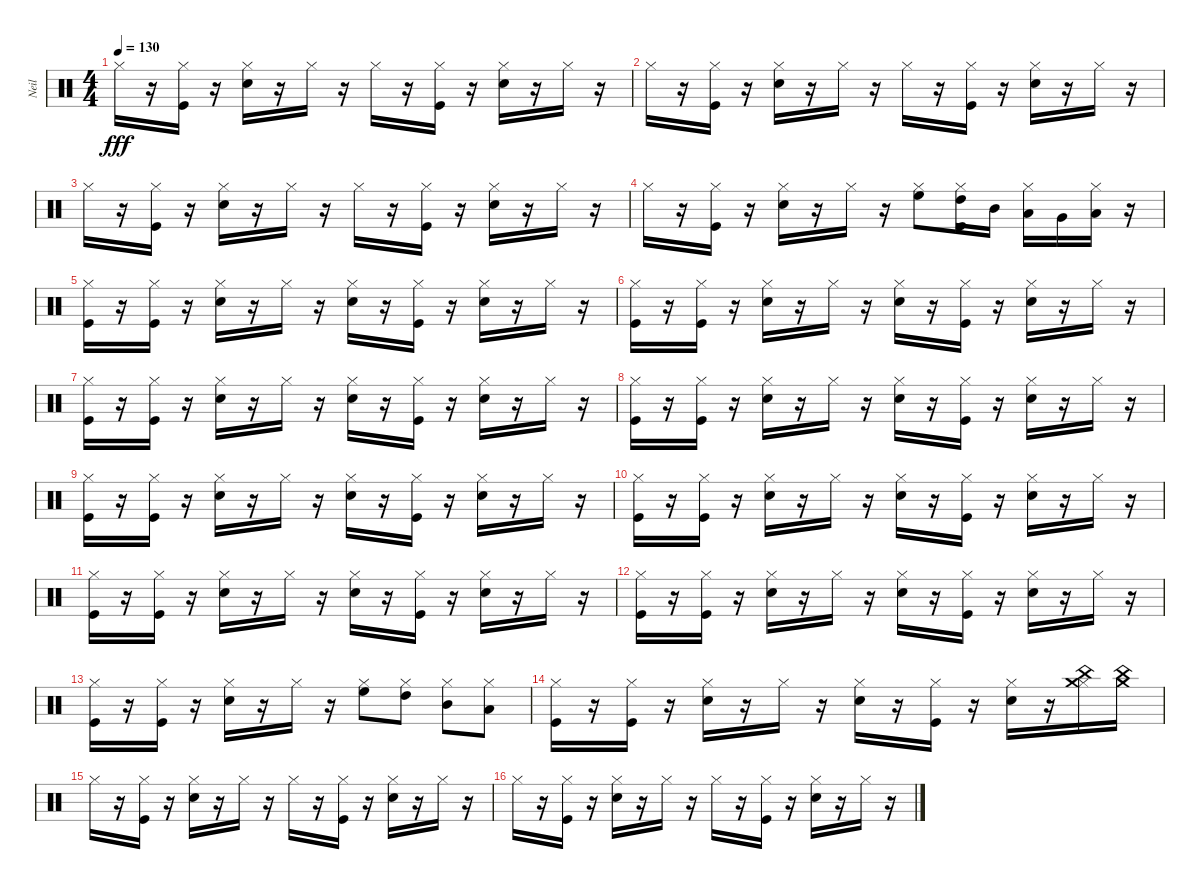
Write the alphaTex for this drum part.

\track ("Neil" "Neil") {instrument percussion}
\staff {score}
\articulation defaults
\ts (4 4)
\tempo 130
\clef neutral
\ks c "Hi-Hat (closed)".16{dy fff}
r.16 ("Kick (hit)" "Hi-Hat (closed)").16 r.16 ("Hi-Hat (closed)" "Electric Snare (hit)").16 r.16 "Hi-Hat (closed)".16 r.16 "Hi-Hat (closed)".16 r.16 ("Hi-Hat (closed)" "Kick (hit)").16 r.16 ("Hi-Hat (closed)" "Electric Snare (hit)").16 r.16 "Hi-Hat (closed)".16 r.16 |
"Hi-Hat (closed)".16 r.16 ("Kick (hit)" "Hi-Hat (closed)").16 r.16 ("Hi-Hat (closed)" "Electric Snare (hit)").16 r.16 "Hi-Hat (closed)".16 r.16 "Hi-Hat (closed)".16 r.16 ("Hi-Hat (closed)" "Kick (hit)").16 r.16 ("Hi-Hat (closed)" "Electric Snare (hit)").16 r.16 "Hi-Hat (closed)".16 r.16 |
"Hi-Hat (closed)".16 r.16 ("Kick (hit)" "Hi-Hat (closed)").16 r.16 ("Hi-Hat (closed)" "Electric Snare (hit)").16 r.16 "Hi-Hat (closed)".16 r.16 "Hi-Hat (closed)".16 r.16 ("Hi-Hat (closed)" "Kick (hit)").16 r.16 ("Hi-Hat (closed)" "Electric Snare (hit)").16 r.16 "Hi-Hat (closed)".16 r.16 |
"Hi-Hat (closed)".16 r.16 ("Kick (hit)" "Hi-Hat (closed)").16 r.16 ("Hi-Hat (closed)" "Electric Snare (hit)").16 r.16 "Hi-Hat (closed)".16 r.16 ("Hi-Hat (closed)" "High Floor Tom (hit)").8 ("Hi-Hat (closed)" "High Tom (hit)" "Kick (hit)").16 "Mid Tom (hit)".16 ("Hi-Hat (closed)" "Low Tom (hit)").16 "Very Low Tom (hit)".16 ("Hi-Hat (closed)" "Low Floor Tom (hit)").16 r.16 |
("Hi-Hat (closed)" "Kick (hit)").16 r.16 ("Kick (hit)" "Hi-Hat (closed)").16 r.16 ("Hi-Hat (closed)" "Electric Snare (hit)").16 r.16 "Hi-Hat (closed)".16 r.16 ("Hi-Hat (closed)" "Electric Snare (hit)").16 r.16 ("Hi-Hat (closed)" "Kick (hit)").16 r.16 ("Hi-Hat (closed)" "Electric Snare (hit)").16 r.16 "Hi-Hat (closed)".16 r.16 |
("Hi-Hat (closed)" "Kick (hit)").16 r.16 ("Kick (hit)" "Hi-Hat (closed)").16 r.16 ("Hi-Hat (closed)" "Electric Snare (hit)").16 r.16 "Hi-Hat (closed)".16 r.16 ("Hi-Hat (closed)" "Electric Snare (hit)").16 r.16 ("Hi-Hat (closed)" "Kick (hit)").16 r.16 ("Hi-Hat (closed)" "Electric Snare (hit)").16 r.16 "Hi-Hat (closed)".16 r.16 |
("Hi-Hat (closed)" "Kick (hit)").16 r.16 ("Kick (hit)" "Hi-Hat (closed)").16 r.16 ("Hi-Hat (closed)" "Electric Snare (hit)").16 r.16 "Hi-Hat (closed)".16 r.16 ("Hi-Hat (closed)" "Electric Snare (hit)").16 r.16 ("Hi-Hat (closed)" "Kick (hit)").16 r.16 ("Hi-Hat (closed)" "Electric Snare (hit)").16 r.16 "Hi-Hat (closed)".16 r.16 |
("Hi-Hat (closed)" "Kick (hit)").16 r.16 ("Kick (hit)" "Hi-Hat (closed)").16 r.16 ("Hi-Hat (closed)" "Electric Snare (hit)").16 r.16 "Hi-Hat (closed)".16 r.16 ("Hi-Hat (closed)" "Electric Snare (hit)").16 r.16 ("Hi-Hat (closed)" "Kick (hit)").16 r.16 ("Hi-Hat (closed)" "Electric Snare (hit)").16 r.16 "Hi-Hat (closed)".16 r.16 |
("Hi-Hat (closed)" "Kick (hit)").16 r.16 ("Kick (hit)" "Hi-Hat (closed)").16 r.16 ("Hi-Hat (closed)" "Electric Snare (hit)").16 r.16 "Hi-Hat (closed)".16 r.16 ("Hi-Hat (closed)" "Electric Snare (hit)").16 r.16 ("Hi-Hat (closed)" "Kick (hit)").16 r.16 ("Hi-Hat (closed)" "Electric Snare (hit)").16 r.16 "Hi-Hat (closed)".16 r.16 |
("Hi-Hat (closed)" "Kick (hit)").16 r.16 ("Kick (hit)" "Hi-Hat (closed)").16 r.16 ("Hi-Hat (closed)" "Electric Snare (hit)").16 r.16 "Hi-Hat (closed)".16 r.16 ("Hi-Hat (closed)" "Electric Snare (hit)").16 r.16 ("Hi-Hat (closed)" "Kick (hit)").16 r.16 ("Hi-Hat (closed)" "Electric Snare (hit)").16 r.16 "Hi-Hat (closed)".16 r.16 |
("Hi-Hat (closed)" "Kick (hit)").16 r.16 ("Kick (hit)" "Hi-Hat (closed)").16 r.16 ("Hi-Hat (closed)" "Electric Snare (hit)").16 r.16 "Hi-Hat (closed)".16 r.16 ("Hi-Hat (closed)" "Electric Snare (hit)").16 r.16 ("Hi-Hat (closed)" "Kick (hit)").16 r.16 ("Hi-Hat (closed)" "Electric Snare (hit)").16 r.16 "Hi-Hat (closed)".16 r.16 |
("Hi-Hat (closed)" "Kick (hit)").16 r.16 ("Kick (hit)" "Hi-Hat (closed)").16 r.16 ("Hi-Hat (closed)" "Electric Snare (hit)").16 r.16 "Hi-Hat (closed)".16 r.16 ("Hi-Hat (closed)" "Electric Snare (hit)").16 r.16 ("Hi-Hat (closed)" "Kick (hit)").16 r.16 ("Hi-Hat (closed)" "Electric Snare (hit)").16 r.16 "Hi-Hat (closed)".16 r.16 |
("Hi-Hat (closed)" "Kick (hit)").16 r.16 ("Kick (hit)" "Hi-Hat (closed)").16 r.16 ("Hi-Hat (closed)" "Electric Snare (hit)").16 r.16 "Hi-Hat (closed)".16 r.16 ("Hi-Hat (closed)" "High Floor Tom (hit)").8 ("Hi-Hat (closed)" "High Tom (hit)").8 ("Hi-Hat (closed)" "Mid Tom (hit)").8 ("Low Tom (hit)" "Hi-Hat (closed)").8 |
("Hi-Hat (closed)" "Kick (hit)").16 r.16 ("Kick (hit)" "Hi-Hat (closed)").16 r.16 ("Hi-Hat (closed)" "Electric Snare (hit)").16 r.16 "Hi-Hat (closed)".16 r.16 ("Hi-Hat (closed)" "Electric Snare (hit)").16 r.16 ("Hi-Hat (closed)" "Kick (hit)").16 r.16 ("Hi-Hat (closed)" "Electric Snare (hit)").16 r.16 ("Hi-Hat (closed)" "Crash medium (hit)" "China (hit)").16 ("China (hit)" "Crash medium (hit)").16 |
"Hi-Hat (closed)".16 r.16 ("Kick (hit)" "Hi-Hat (closed)").16 r.16 ("Hi-Hat (closed)" "Electric Snare (hit)").16 r.16 "Hi-Hat (closed)".16 r.16 "Hi-Hat (closed)".16 r.16 ("Hi-Hat (closed)" "Kick (hit)").16 r.16 ("Hi-Hat (closed)" "Electric Snare (hit)").16 r.16 "Hi-Hat (closed)".16 r.16 |
"Hi-Hat (closed)".16 r.16 ("Kick (hit)" "Hi-Hat (closed)").16 r.16 ("Hi-Hat (closed)" "Electric Snare (hit)").16 r.16 "Hi-Hat (closed)".16 r.16 "Hi-Hat (closed)".16 r.16 ("Hi-Hat (closed)" "Kick (hit)").16 r.16 ("Hi-Hat (closed)" "Electric Snare (hit)").16 r.16 "Hi-Hat (closed)".16 r.16
